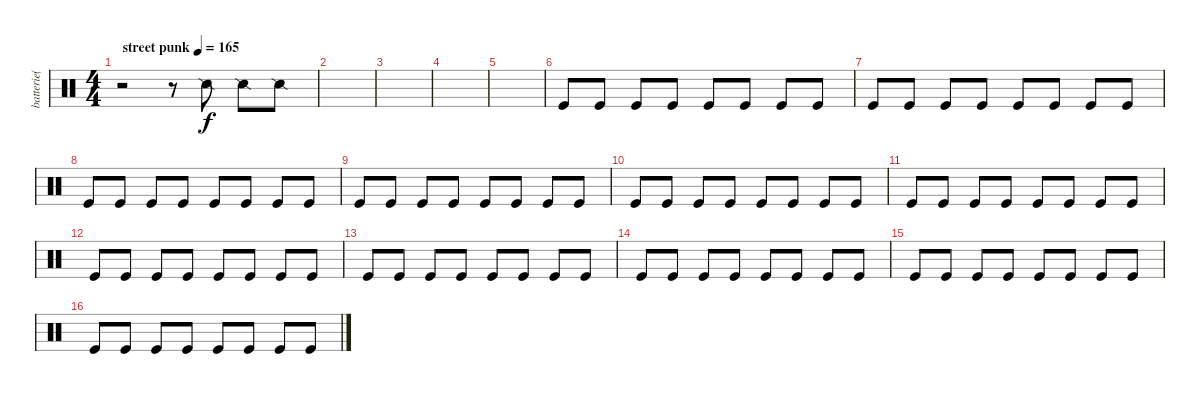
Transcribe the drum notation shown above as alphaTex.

\track ("batterie( Shawn )" "batterie( ") {instrument percussion}
\staff {score}
\articulation defaults
\ts (4 4)
\tempo (165 "street punk")
\clef neutral
\ks c
r.2{dy f} r.8 "Snare (side stick) 2".8 "Snare (side stick) 2".8 "Snare (side stick) 2".8 |
|
|
|
|
"Kick (hit)".8 "Kick (hit)".8 "Kick (hit)".8 "Kick (hit)".8 "Kick (hit)".8 "Kick (hit)".8 "Kick (hit)".8 "Kick (hit)".8 |
"Kick (hit)".8 "Kick (hit)".8 "Kick (hit)".8 "Kick (hit)".8 "Kick (hit)".8 "Kick (hit)".8 "Kick (hit)".8 "Kick (hit)".8 |
"Kick (hit)".8 "Kick (hit)".8 "Kick (hit)".8 "Kick (hit)".8 "Kick (hit)".8 "Kick (hit)".8 "Kick (hit)".8 "Kick (hit)".8 |
"Kick (hit)".8 "Kick (hit)".8 "Kick (hit)".8 "Kick (hit)".8 "Kick (hit)".8 "Kick (hit)".8 "Kick (hit)".8 "Kick (hit)".8 |
"Kick (hit)".8 "Kick (hit)".8 "Kick (hit)".8 "Kick (hit)".8 "Kick (hit)".8 "Kick (hit)".8 "Kick (hit)".8 "Kick (hit)".8 |
"Kick (hit)".8 "Kick (hit)".8 "Kick (hit)".8 "Kick (hit)".8 "Kick (hit)".8 "Kick (hit)".8 "Kick (hit)".8 "Kick (hit)".8 |
"Kick (hit)".8 "Kick (hit)".8 "Kick (hit)".8 "Kick (hit)".8 "Kick (hit)".8 "Kick (hit)".8 "Kick (hit)".8 "Kick (hit)".8 |
"Kick (hit)".8 "Kick (hit)".8 "Kick (hit)".8 "Kick (hit)".8 "Kick (hit)".8 "Kick (hit)".8 "Kick (hit)".8 "Kick (hit)".8 |
"Kick (hit)".8 "Kick (hit)".8 "Kick (hit)".8 "Kick (hit)".8 "Kick (hit)".8 "Kick (hit)".8 "Kick (hit)".8 "Kick (hit)".8 |
"Kick (hit)".8 "Kick (hit)".8 "Kick (hit)".8 "Kick (hit)".8 "Kick (hit)".8 "Kick (hit)".8 "Kick (hit)".8 "Kick (hit)".8 |
"Kick (hit)".8 "Kick (hit)".8 "Kick (hit)".8 "Kick (hit)".8 "Kick (hit)".8 "Kick (hit)".8 "Kick (hit)".8 "Kick (hit)".8
